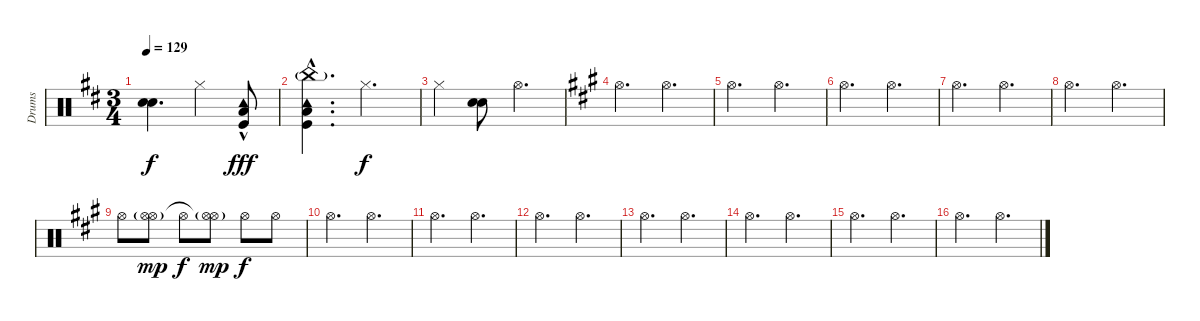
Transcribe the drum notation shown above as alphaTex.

\track ("Drums" "Drums") {instrument percussion}
\staff {score}
\articulation defaults
\ts (3 4)
\tempo 129
\clef neutral
\ks bminor
("Snare (hit) 2" "Electric Snare (hit)").4{d dy f} "Hi-Hat (closed)".4 ("Kick (hit)"{hac} "Low Floor Tom (hit)"{hac} "Tambourine (hit)"{hac}).8{dy fff} |
("Kick (hit)"{hac} "Low Floor Tom (hit)"{hac} "China (hit)"{g} "Tambourine (hit)"{hac}).4{d} "Hi-Hat (closed)".4{d dy f} |
"Hi-Hat (closed)".4 ("Electric Snare (hit)" "Snare (hit) 2").8 "Hi-Hat (open)".4{d} |
\ks f#minor "Hi-Hat (open)".4{d volume 7} "Hi-Hat (open)".4{d volume 8}
|
"Hi-Hat (open)".4{d} "Hi-Hat (open)".4{d} |
"Hi-Hat (open)".4{d} "Hi-Hat (open)".4{d volume 10} |
"Hi-Hat (open)".4{d} "Hi-Hat (open)".4{d} |
"Hi-Hat (open)".4{d} "Hi-Hat (open)".4{d volume 12} |
"Hi-Hat (open)".8 ("Hi-Hat (open)"{g} "Hi-Hat (open)").8{dy mp} "Hi-Hat (open)".8{dy f} ("Hi-Hat (open)"{g} "Hi-Hat (open)"{t}).8{dy mp} "Hi-Hat (open)".8{dy f} "Hi-Hat (open)".8 |
"Hi-Hat (open)".4{d} "Hi-Hat (open)".4{d} |
"Hi-Hat (open)".4{d} "Hi-Hat (open)".4{d} |
"Hi-Hat (open)".4{d} "Hi-Hat (open)".4{d} |
"Hi-Hat (open)".4{d} "Hi-Hat (open)".4{d} |
"Hi-Hat (open)".4{d} "Hi-Hat (open)".4{d} |
"Hi-Hat (open)".4{d} "Hi-Hat (open)".4{d} |
"Hi-Hat (open)".4{d} "Hi-Hat (open)".4{d}
